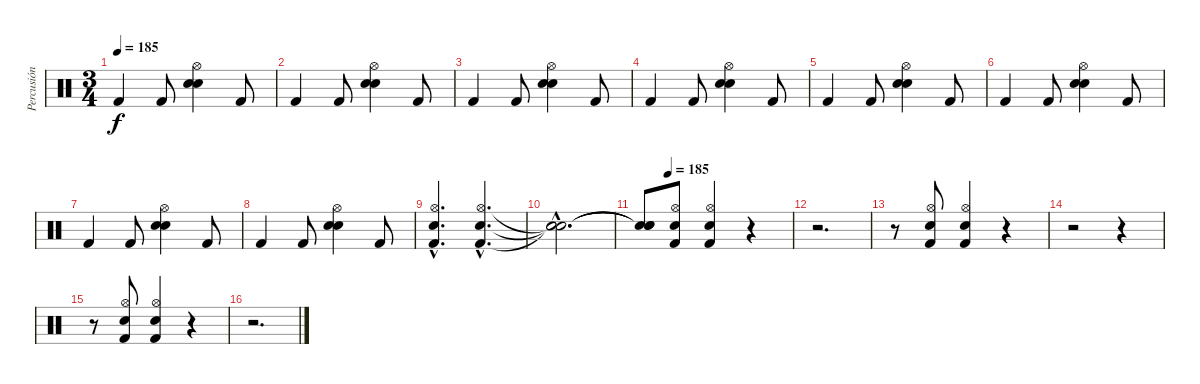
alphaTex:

\track ("Percusión" "Percusión") {instrument percussion}
\staff {score}
\articulation defaults
\ts (3 4)
\tempo 185
\clef neutral
\ks c "Kick (hit) 2".4{dy f} "Kick (hit) 2".8
("Hi-Hat (open)" "Electric Snare (hit)" "Snare (hit) 2").4 "Kick (hit) 2".8 |
"Kick (hit) 2".4 "Kick (hit) 2".8 ("Hi-Hat (open)" "Electric Snare (hit)" "Snare (hit) 2").4 "Kick (hit) 2".8 |
"Kick (hit) 2".4 "Kick (hit) 2".8 ("Hi-Hat (open)" "Electric Snare (hit)" "Snare (hit) 2").4 "Kick (hit) 2".8 |
"Kick (hit) 2".4 "Kick (hit) 2".8 ("Hi-Hat (open)" "Electric Snare (hit)" "Snare (hit) 2").4 "Kick (hit) 2".8 |
"Kick (hit) 2".4 "Kick (hit) 2".8 ("Hi-Hat (open)" "Electric Snare (hit)" "Snare (hit) 2").4 "Kick (hit) 2".8 |
"Kick (hit) 2".4 "Kick (hit) 2".8 ("Hi-Hat (open)" "Electric Snare (hit)" "Snare (hit) 2").4 "Kick (hit) 2".8 |
"Kick (hit) 2".4 "Kick (hit) 2".8 ("Hi-Hat (open)" "Electric Snare (hit)" "Snare (hit) 2").4 "Kick (hit) 2".8 |
"Kick (hit) 2".4 "Kick (hit) 2".8 ("Hi-Hat (open)" "Electric Snare (hit)" "Snare (hit) 2").4 "Kick (hit) 2".8 |
("Hi-Hat (open)"{hac} "Electric Snare (hit)"{hac} "Kick (hit) 2"{hac}).4{d} ("Hi-Hat (open)"{hac} "Electric Snare (hit)"{hac} "Kick (hit) 2"{hac}).4{d} |
("Snare (hit)"{hac t} "Snare (hit)"{hac t} "Snare (hit)"{hac t}).2{d} |
\tempo (185 0.16666666666666666)
("Snare (hit)"{t} "Snare (hit)"{t} "Snare (hit)"{t}).8 ("Hi-Hat (open)" "Electric Snare (hit)" "Kick (hit) 2").8 ("Hi-Hat (open)" "Electric Snare (hit)" "Kick (hit) 2").4 r.4 |
r.2{d} |
r.8 ("Hi-Hat (open)" "Electric Snare (hit)" "Kick (hit) 2").8 ("Hi-Hat (open)" "Electric Snare (hit)" "Kick (hit) 2").4 r.4 |
r.2 r.4 |
r.8 ("Hi-Hat (open)" "Electric Snare (hit)" "Kick (hit) 2").8 ("Hi-Hat (open)" "Electric Snare (hit)" "Kick (hit) 2").4 r.4 |
r.2{d}
